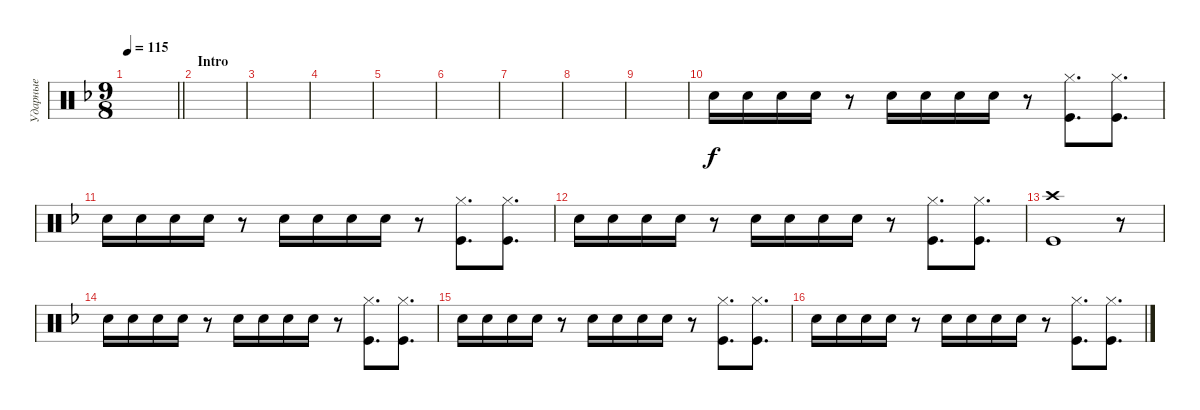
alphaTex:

\track ("Ударные" "Ударные") {instrument percussion}
\staff {score}
\articulation defaults
\ts (9 8)
\tempo 115
\clef neutral
\barLineRight lightlight
\ks dminor
|
\section ("" "Intro")
|
|
|
|
|
|
|
|
"Snare (hit) 2".16 "Snare (hit) 2".16 "Snare (hit) 2".16 "Snare (hit) 2".16 r.8 "Snare (hit) 2".16 "Snare (hit) 2".16 "Snare (hit) 2".16 "Snare (hit) 2".16 r.8 ("Kick (hit)" "Hi-Hat (closed)").8{d} ("Kick (hit)" "Hi-Hat (closed)").8{d} |
"Snare (hit) 2".16 "Snare (hit) 2".16 "Snare (hit) 2".16 "Snare (hit) 2".16 r.8 "Snare (hit) 2".16 "Snare (hit) 2".16 "Snare (hit) 2".16 "Snare (hit) 2".16 r.8 ("Kick (hit)" "Hi-Hat (closed)").8{d} ("Kick (hit)" "Hi-Hat (closed)").8{d} |
"Snare (hit) 2".16 "Snare (hit) 2".16 "Snare (hit) 2".16 "Snare (hit) 2".16 r.8 "Snare (hit) 2".16 "Snare (hit) 2".16 "Snare (hit) 2".16 "Snare (hit) 2".16 r.8 ("Kick (hit)" "Hi-Hat (closed)").8{d} ("Kick (hit)" "Hi-Hat (closed)").8{d} |
("Kick (hit)" "Crash high (hit)").1 r.8 |
"Snare (hit) 2".16 "Snare (hit) 2".16 "Snare (hit) 2".16 "Snare (hit) 2".16 r.8 "Snare (hit) 2".16 "Snare (hit) 2".16 "Snare (hit) 2".16 "Snare (hit) 2".16 r.8 ("Kick (hit)" "Hi-Hat (closed)").8{d} ("Kick (hit)" "Hi-Hat (closed)").8{d} |
"Snare (hit) 2".16 "Snare (hit) 2".16 "Snare (hit) 2".16 "Snare (hit) 2".16 r.8 "Snare (hit) 2".16 "Snare (hit) 2".16 "Snare (hit) 2".16 "Snare (hit) 2".16 r.8 ("Kick (hit)" "Hi-Hat (closed)").8{d} ("Kick (hit)" "Hi-Hat (closed)").8{d} |
"Snare (hit) 2".16 "Snare (hit) 2".16 "Snare (hit) 2".16 "Snare (hit) 2".16 r.8 "Snare (hit) 2".16 "Snare (hit) 2".16 "Snare (hit) 2".16 "Snare (hit) 2".16 r.8 ("Kick (hit)" "Hi-Hat (closed)").8{d} ("Kick (hit)" "Hi-Hat (closed)").8{d}
